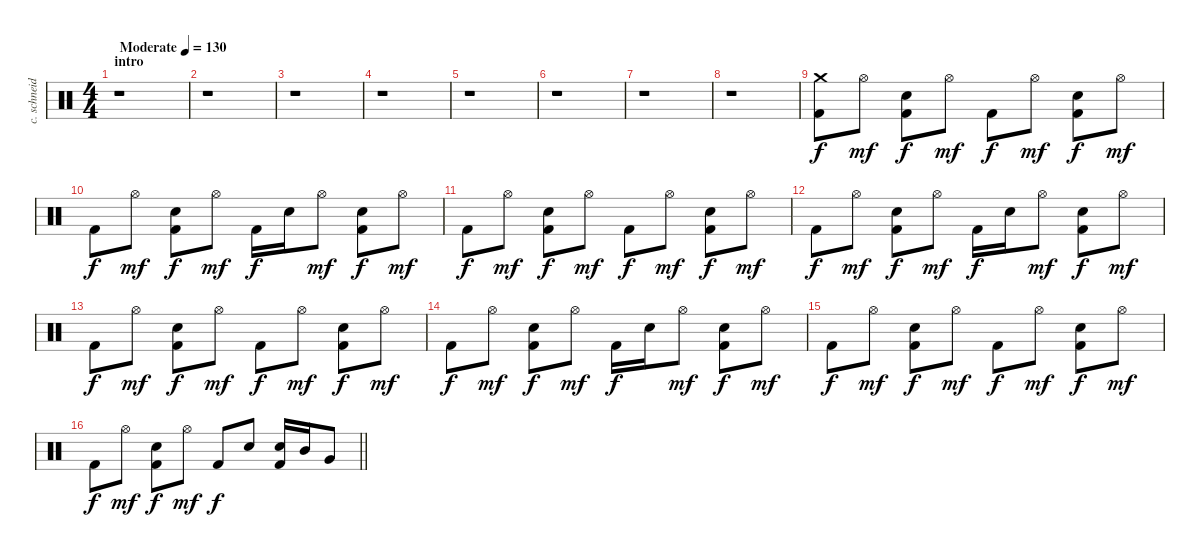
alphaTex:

\track ("c. schneider - drums" "c. schneid") {instrument percussion}
\staff {score}
\articulation defaults
\ts (4 4)
\section ("" "intro")
\tempo (130 "Moderate")
\clef neutral
\ks c
r.1{dy f} |
r.1 |
r.1 |
r.1 |
r.1 |
r.1 |
r.1 |
r.1 |
("Crash medium (hit)" "Kick (hit) 2").8 "Hi-Hat (open)".8{dy mf} ("Electric Snare (hit)" "Kick (hit) 2").8{dy f} "Hi-Hat (open)".8{dy mf} "Kick (hit) 2".8{dy f} "Hi-Hat (open)".8{dy mf} ("Electric Snare (hit)" "Kick (hit) 2").8{dy f} "Hi-Hat (open)".8{dy mf} |
"Kick (hit) 2".8{dy f} "Hi-Hat (open)".8{dy mf} ("Electric Snare (hit)" "Kick (hit) 2").8{dy f} "Hi-Hat (open)".8{dy mf} "Kick (hit) 2".16{dy f} "Electric Snare (hit)".16 "Hi-Hat (open)".8{dy mf} ("Electric Snare (hit)" "Kick (hit) 2").8{dy f} "Hi-Hat (open)".8{dy mf} |
"Kick (hit) 2".8{dy f} "Hi-Hat (open)".8{dy mf} ("Electric Snare (hit)" "Kick (hit) 2").8{dy f} "Hi-Hat (open)".8{dy mf} "Kick (hit) 2".8{dy f} "Hi-Hat (open)".8{dy mf} ("Electric Snare (hit)" "Kick (hit) 2").8{dy f} "Hi-Hat (open)".8{dy mf} |
"Kick (hit) 2".8{dy f} "Hi-Hat (open)".8{dy mf} ("Electric Snare (hit)" "Kick (hit) 2").8{dy f} "Hi-Hat (open)".8{dy mf} "Kick (hit) 2".16{dy f} "Electric Snare (hit)".16 "Hi-Hat (open)".8{dy mf} ("Electric Snare (hit)" "Kick (hit) 2").8{dy f} "Hi-Hat (open)".8{dy mf} |
"Kick (hit) 2".8{dy f} "Hi-Hat (open)".8{dy mf} ("Electric Snare (hit)" "Kick (hit) 2").8{dy f} "Hi-Hat (open)".8{dy mf} "Kick (hit) 2".8{dy f} "Hi-Hat (open)".8{dy mf} ("Electric Snare (hit)" "Kick (hit) 2").8{dy f} "Hi-Hat (open)".8{dy mf} |
"Kick (hit) 2".8{dy f} "Hi-Hat (open)".8{dy mf} ("Electric Snare (hit)" "Kick (hit) 2").8{dy f} "Hi-Hat (open)".8{dy mf} "Kick (hit) 2".16{dy f} "Electric Snare (hit)".16 "Hi-Hat (open)".8{dy mf} ("Electric Snare (hit)" "Kick (hit) 2").8{dy f} "Hi-Hat (open)".8{dy mf} |
"Kick (hit) 2".8{dy f} "Hi-Hat (open)".8{dy mf} ("Electric Snare (hit)" "Kick (hit) 2").8{dy f} "Hi-Hat (open)".8{dy mf} "Kick (hit) 2".8{dy f} "Hi-Hat (open)".8{dy mf} ("Electric Snare (hit)" "Kick (hit) 2").8{dy f} "Hi-Hat (open)".8{dy mf} |
\barLineRight lightlight "Kick (hit) 2".8{dy f} "Hi-Hat (open)".8{dy mf}
("Electric Snare (hit)" "Kick (hit) 2").8{dy f} "Hi-Hat (open)".8{dy mf} "Kick (hit) 2".8{dy f} "Electric Snare (hit)".8 ("Electric Snare (hit)" "Kick (hit) 2").16 "Mid Tom (hit)".16 "Very Low Tom (hit)".8
